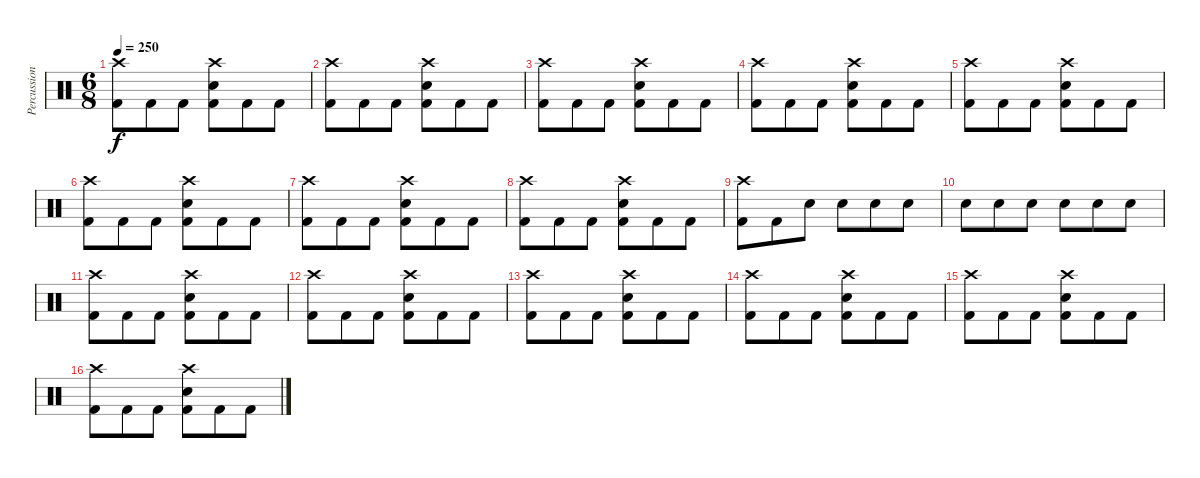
\track ("Percussion" "Percussion") {instrument percussion}
\staff {score}
\articulation defaults
\ts (6 8)
\tempo 250
\clef neutral
\ks c
("Crash high (hit)" "Kick (hit) 2").8{dy f} "Kick (hit) 2".8 "Kick (hit) 2".8 ("Crash high (hit)" "Electric Snare (hit)" "Kick (hit) 2").8 "Kick (hit) 2".8 "Kick (hit) 2".8 |
("Crash high (hit)" "Kick (hit) 2").8 "Kick (hit) 2".8 "Kick (hit) 2".8 ("Crash high (hit)" "Electric Snare (hit)" "Kick (hit) 2").8 "Kick (hit) 2".8 "Kick (hit) 2".8 |
("Crash high (hit)" "Kick (hit) 2").8 "Kick (hit) 2".8 "Kick (hit) 2".8 ("Crash high (hit)" "Electric Snare (hit)" "Kick (hit) 2").8 "Kick (hit) 2".8 "Kick (hit) 2".8 |
("Crash high (hit)" "Kick (hit) 2").8 "Kick (hit) 2".8 "Kick (hit) 2".8 ("Crash high (hit)" "Electric Snare (hit)" "Kick (hit) 2").8 "Kick (hit) 2".8 "Kick (hit) 2".8 |
("Crash high (hit)" "Kick (hit) 2").8 "Kick (hit) 2".8 "Kick (hit) 2".8 ("Crash high (hit)" "Electric Snare (hit)" "Kick (hit) 2").8 "Kick (hit) 2".8 "Kick (hit) 2".8 |
("Crash high (hit)" "Kick (hit) 2").8 "Kick (hit) 2".8 "Kick (hit) 2".8 ("Crash high (hit)" "Electric Snare (hit)" "Kick (hit) 2").8 "Kick (hit) 2".8 "Kick (hit) 2".8 |
("Crash high (hit)" "Kick (hit) 2").8 "Kick (hit) 2".8 "Kick (hit) 2".8 ("Crash high (hit)" "Electric Snare (hit)" "Kick (hit) 2").8 "Kick (hit) 2".8 "Kick (hit) 2".8 |
("Crash high (hit)" "Kick (hit) 2").8 "Kick (hit) 2".8 "Kick (hit) 2".8 ("Crash high (hit)" "Electric Snare (hit)" "Kick (hit) 2").8 "Kick (hit) 2".8 "Kick (hit) 2".8 |
("Crash high (hit)" "Kick (hit) 2").8 "Kick (hit) 2".8 "Electric Snare (hit)".8 "Electric Snare (hit)".8 "Electric Snare (hit)".8 "Electric Snare (hit)".8 |
"Electric Snare (hit)".8 "Electric Snare (hit)".8 "Electric Snare (hit)".8 "Electric Snare (hit)".8 "Electric Snare (hit)".8 "Electric Snare (hit)".8 |
("Crash high (hit)" "Kick (hit) 2").8 "Kick (hit) 2".8 "Kick (hit) 2".8 ("Crash high (hit)" "Electric Snare (hit)" "Kick (hit) 2").8 "Kick (hit) 2".8 "Kick (hit) 2".8 |
("Crash high (hit)" "Kick (hit) 2").8 "Kick (hit) 2".8 "Kick (hit) 2".8 ("Crash high (hit)" "Electric Snare (hit)" "Kick (hit) 2").8 "Kick (hit) 2".8 "Kick (hit) 2".8 |
("Crash high (hit)" "Kick (hit) 2").8 "Kick (hit) 2".8 "Kick (hit) 2".8 ("Crash high (hit)" "Electric Snare (hit)" "Kick (hit) 2").8 "Kick (hit) 2".8 "Kick (hit) 2".8 |
("Crash high (hit)" "Kick (hit) 2").8 "Kick (hit) 2".8 "Kick (hit) 2".8 ("Crash high (hit)" "Electric Snare (hit)" "Kick (hit) 2").8 "Kick (hit) 2".8 "Kick (hit) 2".8 |
("Crash high (hit)" "Kick (hit) 2").8 "Kick (hit) 2".8 "Kick (hit) 2".8 ("Crash high (hit)" "Electric Snare (hit)" "Kick (hit) 2").8 "Kick (hit) 2".8 "Kick (hit) 2".8 |
("Crash high (hit)" "Kick (hit) 2").8 "Kick (hit) 2".8 "Kick (hit) 2".8 ("Crash high (hit)" "Electric Snare (hit)" "Kick (hit) 2").8 "Kick (hit) 2".8 "Kick (hit) 2".8
